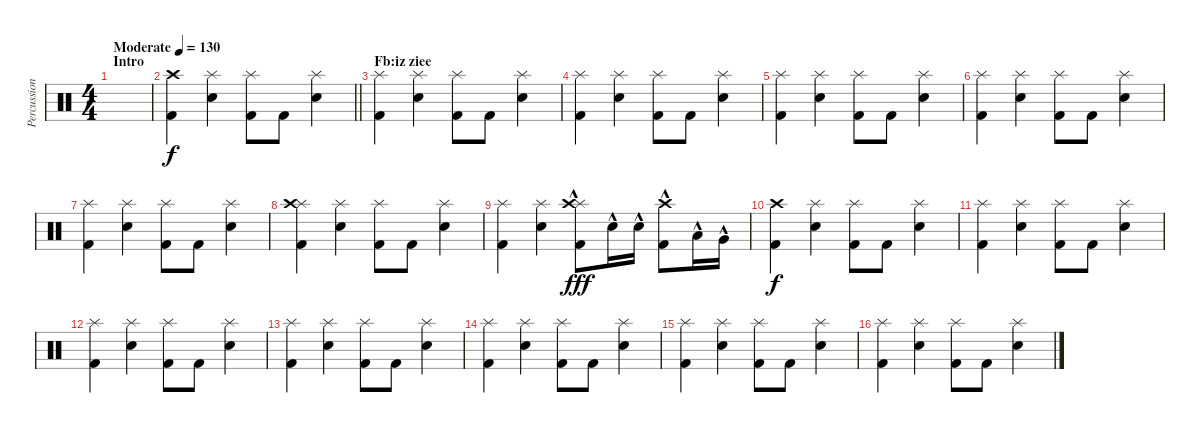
\track ("Percussion 1" "Percussion") {instrument percussion}
\staff {score}
\articulation defaults
\ts (4 4)
\section ("" "Intro")
\tempo (130 "Moderate")
\clef neutral
\ks c
|
\barLineRight lightlight
("Crash high (hit)" "Kick (hit) 2").4 ("Splash (hit)" "Electric Snare (hit)").4 ("Splash (hit)" "Kick (hit) 2").8 "Kick (hit) 2".8 ("Splash (hit)" "Electric Snare (hit)").4 |
\section ("" "Fb:iz ziee")
("Splash (hit)" "Kick (hit) 2").4 ("Splash (hit)" "Electric Snare (hit)").4 ("Splash (hit)" "Kick (hit) 2").8 "Kick (hit) 2".8 ("Splash (hit)" "Electric Snare (hit)").4 |
("Splash (hit)" "Kick (hit) 2").4 ("Splash (hit)" "Electric Snare (hit)").4 ("Splash (hit)" "Kick (hit) 2").8 "Kick (hit) 2".8 ("Splash (hit)" "Electric Snare (hit)").4 |
("Splash (hit)" "Kick (hit) 2").4 ("Splash (hit)" "Electric Snare (hit)").4 ("Splash (hit)" "Kick (hit) 2").8 "Kick (hit) 2".8 ("Splash (hit)" "Electric Snare (hit)").4 |
("Splash (hit)" "Kick (hit) 2").4 ("Splash (hit)" "Electric Snare (hit)").4 ("Splash (hit)" "Kick (hit) 2").8 "Kick (hit) 2".8 ("Splash (hit)" "Electric Snare (hit)").4 |
("Splash (hit)" "Kick (hit) 2").4 ("Splash (hit)" "Electric Snare (hit)").4 ("Splash (hit)" "Kick (hit) 2").8 "Kick (hit) 2".8 ("Splash (hit)" "Electric Snare (hit)").4 |
("Splash (hit)" "Crash high (hit)" "Kick (hit) 2").4 ("Splash (hit)" "Electric Snare (hit)").4 ("Splash (hit)" "Kick (hit) 2").8 "Kick (hit) 2".8 ("Splash (hit)" "Electric Snare (hit)").4 |
("Splash (hit)" "Kick (hit) 2").4 ("Splash (hit)" "Electric Snare (hit)").4 ("Splash (hit)" "Crash high (hit)"{hac} "Kick (hit) 2").8{dy fff} "Electric Snare (hit)"{hac}.16 "Electric Snare (hit)"{hac}.16 ("Crash high (hit)"{hac} "Kick (hit) 2").8 "Low Tom (hit)"{hac}.16 "Very Low Tom (hit)"{hac}.16 |
("Crash high (hit)" "Kick (hit) 2").4{dy f} ("Splash (hit)" "Electric Snare (hit)").4 ("Splash (hit)" "Kick (hit) 2").8 "Kick (hit) 2".8 ("Splash (hit)" "Electric Snare (hit)").4 |
("Splash (hit)" "Kick (hit) 2").4 ("Splash (hit)" "Electric Snare (hit)").4 ("Splash (hit)" "Kick (hit) 2").8 "Kick (hit) 2".8 ("Splash (hit)" "Electric Snare (hit)").4 |
("Splash (hit)" "Kick (hit) 2").4 ("Splash (hit)" "Electric Snare (hit)").4 ("Splash (hit)" "Kick (hit) 2").8 "Kick (hit) 2".8 ("Splash (hit)" "Electric Snare (hit)").4 |
("Splash (hit)" "Kick (hit) 2").4 ("Splash (hit)" "Electric Snare (hit)").4 ("Splash (hit)" "Kick (hit) 2").8 "Kick (hit) 2".8 ("Splash (hit)" "Electric Snare (hit)").4 |
("Splash (hit)" "Kick (hit) 2").4 ("Splash (hit)" "Electric Snare (hit)").4 ("Splash (hit)" "Kick (hit) 2").8 "Kick (hit) 2".8 ("Splash (hit)" "Electric Snare (hit)").4 |
("Splash (hit)" "Kick (hit) 2").4 ("Splash (hit)" "Electric Snare (hit)").4 ("Splash (hit)" "Kick (hit) 2").8 "Kick (hit) 2".8 ("Splash (hit)" "Electric Snare (hit)").4 |
("Splash (hit)" "Kick (hit) 2").4 ("Splash (hit)" "Electric Snare (hit)").4 ("Splash (hit)" "Kick (hit) 2").8 "Kick (hit) 2".8 ("Splash (hit)" "Electric Snare (hit)").4
